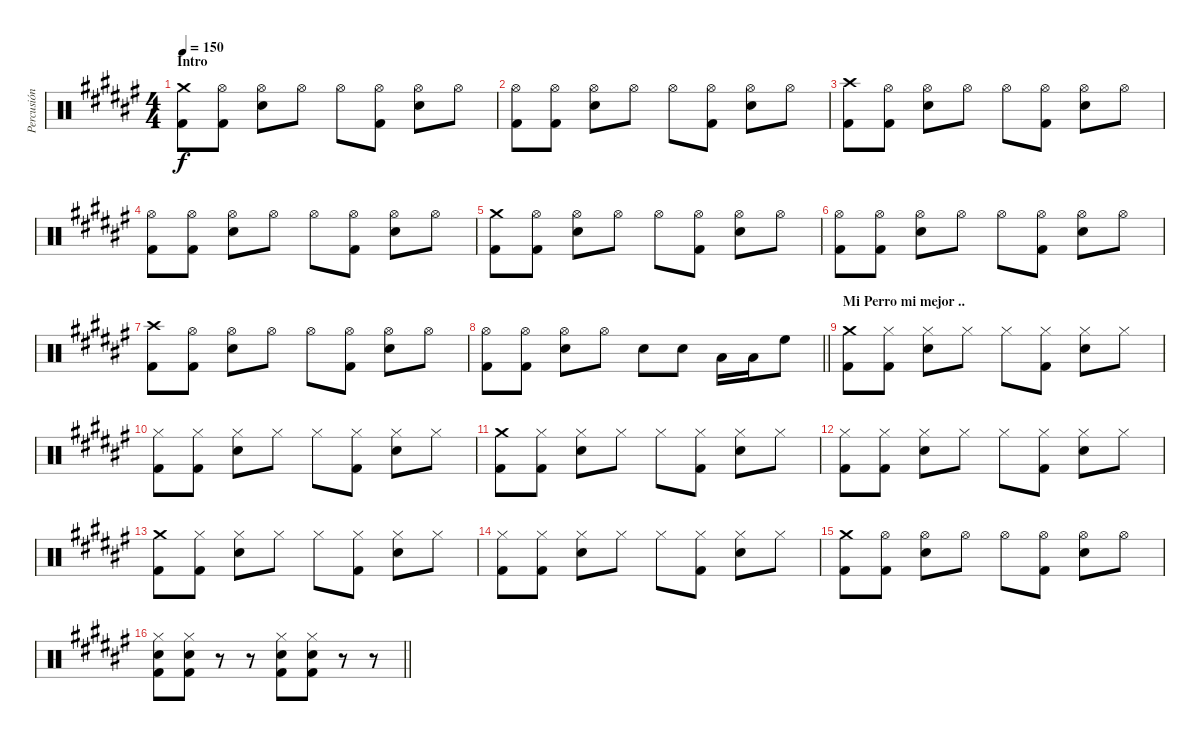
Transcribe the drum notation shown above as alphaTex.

\track ("Percusión" "Percusión") {instrument percussion}
\staff {score}
\articulation defaults
\ts (4 4)
\section ("" "Intro")
\tempo 150
\clef neutral
\ks d#minor
("Crash medium (hit)" "Kick (hit) 2").8{dy f} ("Hi-Hat (open)" "Kick (hit) 2").8 ("Hi-Hat (open)" "Electric Snare (hit)").8 "Hi-Hat (open)".8 "Hi-Hat (open)".8 ("Hi-Hat (open)" "Kick (hit) 2").8 ("Hi-Hat (open)" "Electric Snare (hit)").8 "Hi-Hat (open)".8 |
("Hi-Hat (open)" "Kick (hit) 2").8 ("Hi-Hat (open)" "Kick (hit) 2").8 ("Hi-Hat (open)" "Electric Snare (hit)").8 "Hi-Hat (open)".8 "Hi-Hat (open)".8 ("Hi-Hat (open)" "Kick (hit) 2").8 ("Hi-Hat (open)" "Electric Snare (hit)").8 "Hi-Hat (open)".8 |
("Crash high (hit)" "Kick (hit) 2").8 ("Hi-Hat (open)" "Kick (hit) 2").8 ("Hi-Hat (open)" "Electric Snare (hit)").8 "Hi-Hat (open)".8 "Hi-Hat (open)".8 ("Hi-Hat (open)" "Kick (hit) 2").8 ("Hi-Hat (open)" "Electric Snare (hit)").8 "Hi-Hat (open)".8 |
("Hi-Hat (open)" "Kick (hit) 2").8 ("Hi-Hat (open)" "Kick (hit) 2").8 ("Hi-Hat (open)" "Electric Snare (hit)").8 "Hi-Hat (open)".8 "Hi-Hat (open)".8 ("Hi-Hat (open)" "Kick (hit) 2").8 ("Hi-Hat (open)" "Electric Snare (hit)").8 "Hi-Hat (open)".8 |
("Crash medium (hit)" "Kick (hit) 2").8 ("Hi-Hat (open)" "Kick (hit) 2").8 ("Hi-Hat (open)" "Electric Snare (hit)").8 "Hi-Hat (open)".8 "Hi-Hat (open)".8 ("Hi-Hat (open)" "Kick (hit) 2").8 ("Hi-Hat (open)" "Electric Snare (hit)").8 "Hi-Hat (open)".8 |
("Hi-Hat (open)" "Kick (hit) 2").8 ("Hi-Hat (open)" "Kick (hit) 2").8 ("Hi-Hat (open)" "Electric Snare (hit)").8 "Hi-Hat (open)".8 "Hi-Hat (open)".8 ("Hi-Hat (open)" "Kick (hit) 2").8 ("Hi-Hat (open)" "Electric Snare (hit)").8 "Hi-Hat (open)".8 |
("Crash high (hit)" "Kick (hit) 2").8 ("Hi-Hat (open)" "Kick (hit) 2").8 ("Hi-Hat (open)" "Electric Snare (hit)").8 "Hi-Hat (open)".8 "Hi-Hat (open)".8 ("Hi-Hat (open)" "Kick (hit) 2").8 ("Hi-Hat (open)" "Electric Snare (hit)").8 "Hi-Hat (open)".8 |
\barLineRight lightlight
("Hi-Hat (open)" "Kick (hit) 2").8 ("Hi-Hat (open)" "Kick (hit) 2").8 ("Hi-Hat (open)" "Electric Snare (hit)").8 "Hi-Hat (open)".8 "Electric Snare (hit)".8 "Electric Snare (hit)".8 "Low Tom (hit)".16 "Low Tom (hit)".16 "High Floor Tom (hit)".8 |
\section ("" "Mi Perro mi mejor ..")
("Crash medium (hit)" "Kick (hit) 2").8 ("Hi-Hat (closed)" "Kick (hit) 2").8 ("Hi-Hat (closed)" "Electric Snare (hit)").8 "Hi-Hat (closed)".8 "Hi-Hat (closed)".8 ("Hi-Hat (closed)" "Kick (hit) 2").8 ("Hi-Hat (closed)" "Electric Snare (hit)").8 "Hi-Hat (closed)".8 |
("Hi-Hat (closed)" "Kick (hit) 2").8 ("Hi-Hat (closed)" "Kick (hit) 2").8 ("Hi-Hat (closed)" "Electric Snare (hit)").8 "Hi-Hat (closed)".8 "Hi-Hat (closed)".8 ("Hi-Hat (closed)" "Kick (hit) 2").8 ("Hi-Hat (closed)" "Electric Snare (hit)").8 "Hi-Hat (closed)".8 |
("Crash medium (hit)" "Kick (hit) 2").8 ("Hi-Hat (closed)" "Kick (hit) 2").8 ("Hi-Hat (closed)" "Electric Snare (hit)").8 "Hi-Hat (closed)".8 "Hi-Hat (closed)".8 ("Hi-Hat (closed)" "Kick (hit) 2").8 ("Hi-Hat (closed)" "Electric Snare (hit)").8 "Hi-Hat (closed)".8 |
("Hi-Hat (closed)" "Kick (hit) 2").8 ("Hi-Hat (closed)" "Kick (hit) 2").8 ("Hi-Hat (closed)" "Electric Snare (hit)").8 "Hi-Hat (closed)".8 "Hi-Hat (closed)".8 ("Hi-Hat (closed)" "Kick (hit) 2").8 ("Hi-Hat (closed)" "Electric Snare (hit)").8 "Hi-Hat (closed)".8 |
("Crash medium (hit)" "Kick (hit) 2").8 ("Hi-Hat (closed)" "Kick (hit) 2").8 ("Hi-Hat (closed)" "Electric Snare (hit)").8 "Hi-Hat (closed)".8 "Hi-Hat (closed)".8 ("Hi-Hat (closed)" "Kick (hit) 2").8 ("Hi-Hat (closed)" "Electric Snare (hit)").8 "Hi-Hat (closed)".8 |
("Hi-Hat (closed)" "Kick (hit) 2").8 ("Hi-Hat (closed)" "Kick (hit) 2").8 ("Hi-Hat (closed)" "Electric Snare (hit)").8 "Hi-Hat (closed)".8 "Hi-Hat (closed)".8 ("Hi-Hat (closed)" "Kick (hit) 2").8 ("Hi-Hat (closed)" "Electric Snare (hit)").8 "Hi-Hat (closed)".8 |
("Crash medium (hit)" "Kick (hit) 2").8 ("Hi-Hat (open)" "Kick (hit) 2").8 ("Hi-Hat (open)" "Electric Snare (hit)").8 "Hi-Hat (open)".8 "Hi-Hat (open)".8 ("Hi-Hat (open)" "Kick (hit) 2").8 ("Hi-Hat (open)" "Electric Snare (hit)").8 "Hi-Hat (open)".8 |
\barLineRight lightlight
("Hi-Hat (closed)" "Kick (hit) 2" "Electric Snare (hit)").8 ("Hi-Hat (closed)" "Kick (hit) 2" "Electric Snare (hit)").8 r.8 r.8 ("Hi-Hat (closed)" "Kick (hit) 2" "Electric Snare (hit)").8 ("Hi-Hat (closed)" "Kick (hit) 2" "Electric Snare (hit)").8 r.8 r.8
